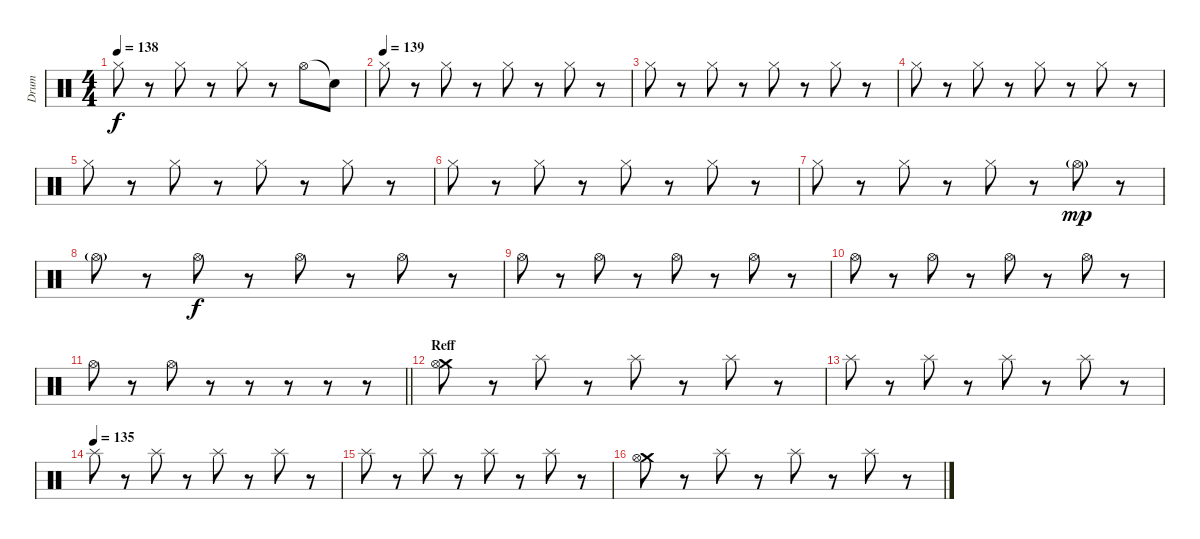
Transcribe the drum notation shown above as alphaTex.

\track ("Drum" "Drum") {instrument percussion}
\staff {score}
\articulation defaults
\ts (4 4)
\tempo 138
\clef neutral
\ks c "Hi-Hat (closed)".8{dy f}
r.8 "Hi-Hat (closed)".8 r.8 "Hi-Hat (closed)".8 r.8 "Hi-Hat (open)".8 "Snare (hit)"{t}.8 |
\tempo (139)
"Hi-Hat (closed)".8 r.8 "Hi-Hat (closed)".8 r.8 "Hi-Hat (closed)".8 r.8 "Hi-Hat (closed)".8 r.8 |
"Hi-Hat (closed)".8 r.8 "Hi-Hat (closed)".8 r.8 "Hi-Hat (closed)".8 r.8 "Hi-Hat (closed)".8 r.8 |
"Hi-Hat (closed)".8 r.8 "Hi-Hat (closed)".8 r.8 "Hi-Hat (closed)".8 r.8 "Hi-Hat (closed)".8 r.8 |
"Hi-Hat (closed)".8 r.8 "Hi-Hat (closed)".8 r.8 "Hi-Hat (closed)".8 r.8 "Hi-Hat (closed)".8 r.8 |
"Hi-Hat (closed)".8 r.8 "Hi-Hat (closed)".8 r.8 "Hi-Hat (closed)".8 r.8 "Hi-Hat (closed)".8 r.8 |
"Hi-Hat (closed)".8 r.8 "Hi-Hat (closed)".8 r.8 "Hi-Hat (closed)".8 r.8 "Hi-Hat (open)"{g}.8{dy mp} r.8 |
"Hi-Hat (open)"{g}.8 r.8 "Hi-Hat (open)".8{dy f} r.8 "Hi-Hat (open)".8 r.8 "Hi-Hat (open)".8 r.8 |
"Hi-Hat (open)".8 r.8 "Hi-Hat (open)".8 r.8 "Hi-Hat (open)".8 r.8 "Hi-Hat (open)".8 r.8 |
"Hi-Hat (open)".8 r.8 "Hi-Hat (open)".8 r.8 "Hi-Hat (open)".8 r.8 "Hi-Hat (open)".8 r.8 |
\barLineRight lightlight "Hi-Hat (open)".8
r.8 "Hi-Hat (open)".8 r.8 r.8 r.8 r.8 r.8 |
\section ("" "Reff")
("Crash medium (hit)" "Hi-Hat (open)").8 r.8 "Splash (hit)".8 r.8 "Splash (hit)".8 r.8 "Splash (hit)".8 r.8 |
"Splash (hit)".8 r.8 "Splash (hit)".8 r.8 "Splash (hit)".8 r.8 "Splash (hit)".8 r.8 |
\tempo (135)
"Splash (hit)".8 r.8 "Splash (hit)".8 r.8 "Splash (hit)".8 r.8 "Splash (hit)".8 r.8 |
"Splash (hit)".8 r.8 "Splash (hit)".8 r.8 "Splash (hit)".8 r.8 "Splash (hit)".8 r.8 |
("Crash medium (hit)" "Hi-Hat (open)").8 r.8 "Splash (hit)".8 r.8 "Splash (hit)".8 r.8 "Splash (hit)".8 r.8
